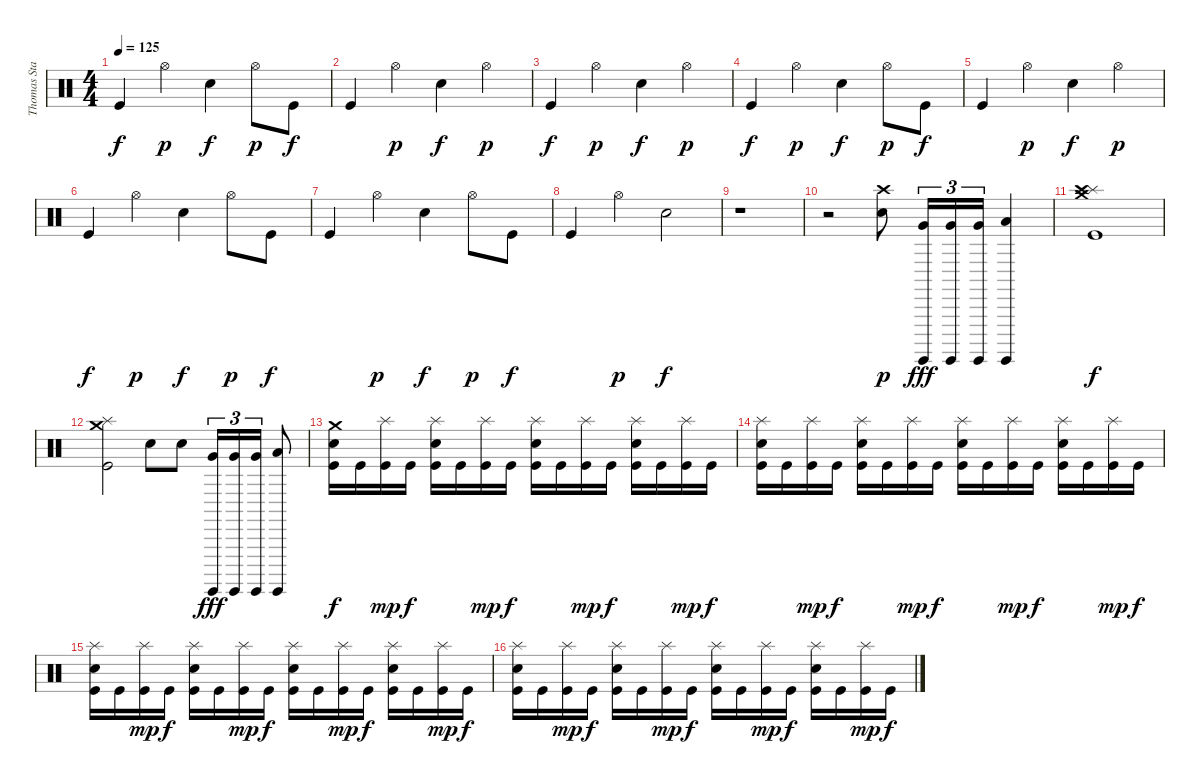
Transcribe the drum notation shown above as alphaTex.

\track ("Thomas Stauch" "Thomas Sta") {instrument percussion}
\staff {score}
\articulation defaults
\ts (4 4)
\tempo 125
\clef neutral
\ks c "Kick (hit)".4{dy f} "Hi-Hat (open)".4{dy p} "Electric Snare (hit)".4{dy f} "Hi-Hat (open)".8{dy p} "Kick (hit)".8{dy f}
|
"Kick (hit)".4 "Hi-Hat (open)".4{dy p} "Electric Snare (hit)".4{dy f} "Hi-Hat (open)".4{dy p} |
"Kick (hit)".4{dy f} "Hi-Hat (open)".4{dy p} "Electric Snare (hit)".4{dy f} "Hi-Hat (open)".4{dy p} |
"Kick (hit)".4{dy f} "Hi-Hat (open)".4{dy p} "Electric Snare (hit)".4{dy f} "Hi-Hat (open)".8{dy p} "Kick (hit)".8{dy f} |
"Kick (hit)".4 "Hi-Hat (open)".4{dy p} "Electric Snare (hit)".4{dy f} "Hi-Hat (open)".4{dy p} |
"Kick (hit)".4{dy f} "Hi-Hat (open)".4{dy p} "Electric Snare (hit)".4{dy f} "Hi-Hat (open)".8{dy p} "Kick (hit)".8{dy f} |
"Kick (hit)".4 "Hi-Hat (open)".4{dy p} "Electric Snare (hit)".4{dy f} "Hi-Hat (open)".8{dy p} "Kick (hit)".8{dy f} |
"Kick (hit)".4 "Hi-Hat (open)".4{dy p} "Electric Snare (hit)".2{dy f} |
r.1 |
r.2 ("Crash high (hit)" "Electric Snare (hit)").8{dy p} ("Surdo (hit)" "Very Low Tom (hit)").16{tu (3 2) dy fff} ("Surdo (hit)" "Very Low Tom (hit)").16{tu (3 2)} ("Surdo (hit)" "Very Low Tom (hit)").16{tu (3 2)} ("Surdo (hit)" "Low Floor Tom (hit)").4 |
("Crash medium (hit)" "Splash (hit)" "Crash high (hit)" "Kick (hit)").1{dy f} |
("Crash medium (hit)" "Splash (hit)" "Kick (hit)").2 "Electric Snare (hit)".8 "Electric Snare (hit)".8 ("Surdo (hit)" "Very Low Tom (hit)").16{tu (3 2) dy fff} ("Surdo (hit)" "Very Low Tom (hit)").16{tu (3 2)} ("Surdo (hit)" "Very Low Tom (hit)").16{tu (3 2)} ("Surdo (hit)" "Low Floor Tom (hit)").8 |
("Crash medium (hit)" "Electric Snare (hit)" "Kick (hit)").16{dy f} "Kick (hit)".16 ("Splash (hit)" "Kick (hit)").16{dy mp} "Kick (hit)".16{dy f} ("Splash (hit)" "Electric Snare (hit)" "Kick (hit)").16 "Kick (hit)".16 ("Splash (hit)" "Kick (hit)").16{dy mp} "Kick (hit)".16{dy f} ("Splash (hit)" "Electric Snare (hit)" "Kick (hit)").16 "Kick (hit)".16 ("Splash (hit)" "Kick (hit)").16{dy mp} "Kick (hit)".16{dy f} ("Splash (hit)" "Electric Snare (hit)" "Kick (hit)").16 "Kick (hit)".16 ("Splash (hit)" "Kick (hit)").16{dy mp} "Kick (hit)".16{dy f} |
("Splash (hit)" "Electric Snare (hit)" "Kick (hit)").16 "Kick (hit)".16 ("Splash (hit)" "Kick (hit)").16{dy mp} "Kick (hit)".16{dy f} ("Splash (hit)" "Electric Snare (hit)" "Kick (hit)").16 "Kick (hit)".16 ("Splash (hit)" "Kick (hit)").16{dy mp} "Kick (hit)".16{dy f} ("Splash (hit)" "Electric Snare (hit)" "Kick (hit)").16 "Kick (hit)".16 ("Splash (hit)" "Kick (hit)").16{dy mp} "Kick (hit)".16{dy f} ("Splash (hit)" "Electric Snare (hit)" "Kick (hit)").16 "Kick (hit)".16 ("Splash (hit)" "Kick (hit)").16{dy mp} "Kick (hit)".16{dy f} |
("Splash (hit)" "Electric Snare (hit)" "Kick (hit)").16 "Kick (hit)".16 ("Splash (hit)" "Kick (hit)").16{dy mp} "Kick (hit)".16{dy f} ("Splash (hit)" "Electric Snare (hit)" "Kick (hit)").16 "Kick (hit)".16 ("Splash (hit)" "Kick (hit)").16{dy mp} "Kick (hit)".16{dy f} ("Splash (hit)" "Electric Snare (hit)" "Kick (hit)").16 "Kick (hit)".16 ("Splash (hit)" "Kick (hit)").16{dy mp} "Kick (hit)".16{dy f} ("Splash (hit)" "Electric Snare (hit)" "Kick (hit)").16 "Kick (hit)".16 ("Splash (hit)" "Kick (hit)").16{dy mp} "Kick (hit)".16{dy f} |
("Splash (hit)" "Electric Snare (hit)" "Kick (hit)").16 "Kick (hit)".16 ("Splash (hit)" "Kick (hit)").16{dy mp} "Kick (hit)".16{dy f} ("Splash (hit)" "Electric Snare (hit)" "Kick (hit)").16 "Kick (hit)".16 ("Splash (hit)" "Kick (hit)").16{dy mp} "Kick (hit)".16{dy f} ("Splash (hit)" "Electric Snare (hit)" "Kick (hit)").16 "Kick (hit)".16 ("Splash (hit)" "Kick (hit)").16{dy mp} "Kick (hit)".16{dy f} ("Splash (hit)" "Electric Snare (hit)" "Kick (hit)").16 "Kick (hit)".16 ("Splash (hit)" "Kick (hit)").16{dy mp} "Kick (hit)".16{dy f}
